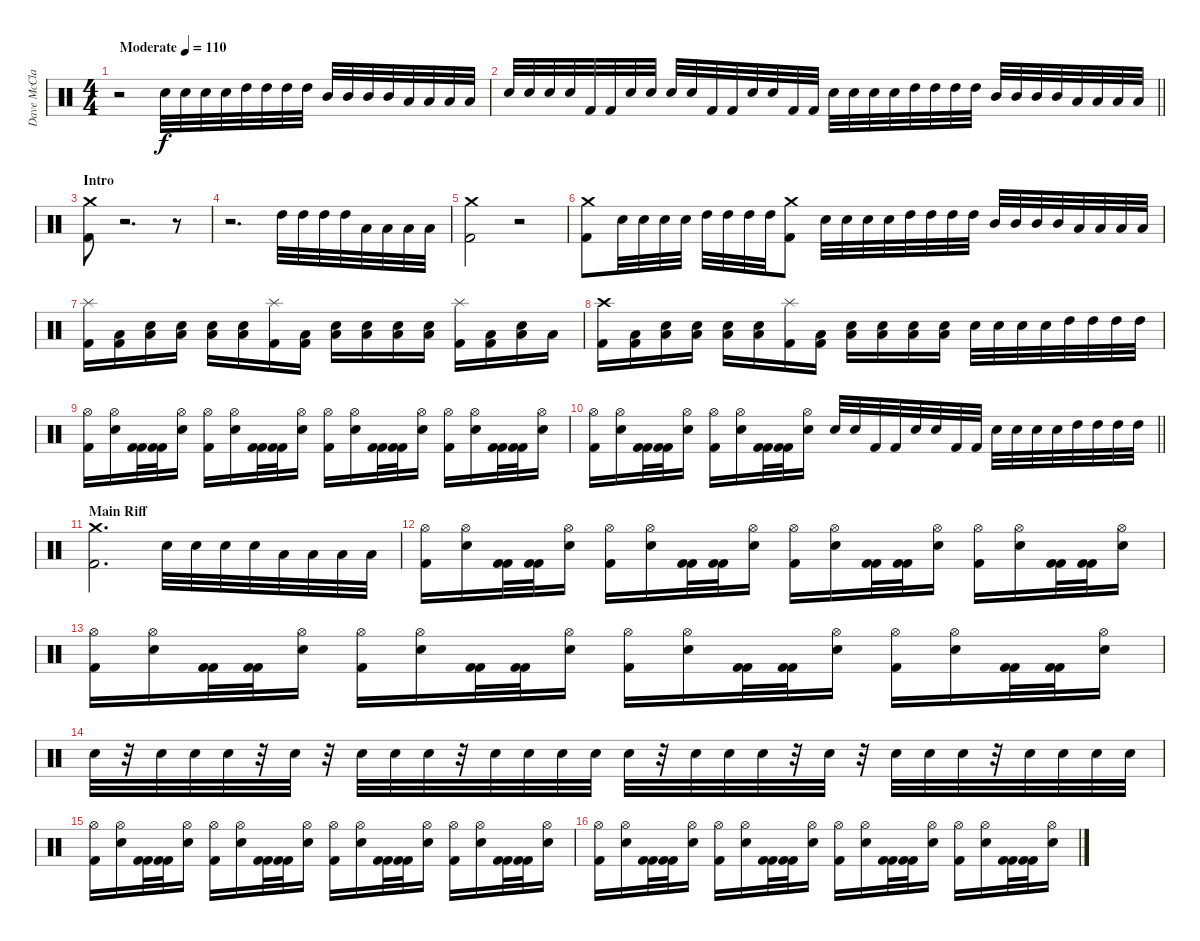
\track ("Dave McClain" "Dave McCla") {instrument percussion}
\staff {score}
\articulation defaults
\ts (4 4)
\tempo (110 "Moderate")
\clef neutral
\ks c
r.2{dy f} "Electric Snare (hit)".32 "Electric Snare (hit)".32 "Electric Snare (hit)".32 "Electric Snare (hit)".32 "High Tom (hit)".32 "High Tom (hit)".32 "High Tom (hit)".32 "High Tom (hit)".32 "Mid Tom (hit)".32 "Mid Tom (hit)".32 "Mid Tom (hit)".32 "Mid Tom (hit)".32 "Low Tom (hit)".32 "Low Tom (hit)".32 "Low Tom (hit)".32 "Low Tom (hit)".32 |
\barLineRight lightlight "Electric Snare (hit)".32 "Electric Snare (hit)".32 "Electric Snare (hit)".32 "Electric Snare (hit)".32 "Kick (hit) 2".32 "Kick (hit) 2".32 "Electric Snare (hit)".32 "Electric Snare (hit)".32 "Electric Snare (hit)".32 "Electric Snare (hit)".32 "Kick (hit) 2".32 "Kick (hit) 2".32 "Electric Snare (hit)".32 "Electric Snare (hit)".32 "Kick (hit) 2".32 "Kick (hit) 2".32 "Electric Snare (hit)".32 "Electric Snare (hit)".32 "Electric Snare (hit)".32 "Electric Snare (hit)".32 "High Tom (hit)".32 "High Tom (hit)".32 "High Tom (hit)".32 "High Tom (hit)".32 "Mid Tom (hit)".32 "Mid Tom (hit)".32 "Mid Tom (hit)".32 "Mid Tom (hit)".32 "Low Tom (hit)".32 "Low Tom (hit)".32 "Low Tom (hit)".32 "Low Tom (hit)".32
|
\section ("" "Intro")
("Crash medium (hit)" "Kick (hit) 2").8 r.2{d} r.8 |
r.2{d} "High Tom (hit)".32 "High Tom (hit)".32 "High Tom (hit)".32 "High Tom (hit)".32 "Low Tom (hit)".32 "Low Tom (hit)".32 "Low Tom (hit)".32 "Low Tom (hit)".32 |
("Kick (hit) 2" "Crash medium (hit)").2 r.2 |
("Crash medium (hit)" "Kick (hit) 2").8 "Electric Snare (hit)".32 "Electric Snare (hit)".32 "Electric Snare (hit)".32 "Electric Snare (hit)".32 "High Tom (hit)".32 "High Tom (hit)".32 "High Tom (hit)".32 "High Tom (hit)".32 ("Crash medium (hit)" "Kick (hit) 2").8 "Electric Snare (hit)".32 "Electric Snare (hit)".32 "Electric Snare (hit)".32 "Electric Snare (hit)".32 "High Tom (hit)".32 "High Tom (hit)".32 "High Tom (hit)".32 "High Tom (hit)".32 "Mid Tom (hit)".32 "Mid Tom (hit)".32 "Mid Tom (hit)".32 "Mid Tom (hit)".32 "Low Tom (hit)".32 "Low Tom (hit)".32 "Low Tom (hit)".32 "Low Tom (hit)".32 |
("Splash (hit)" "Kick (hit) 2").16 ("Kick (hit) 2" "Low Tom (hit)").16 ("Electric Snare (hit)" "Low Tom (hit)").16 ("Electric Snare (hit)" "Low Tom (hit)").16 ("Electric Snare (hit)" "Low Tom (hit)").16 ("Low Tom (hit)" "Electric Snare (hit)").16 ("Splash (hit)" "Kick (hit) 2").16 ("Kick (hit) 2" "Low Tom (hit)").16 ("Electric Snare (hit)" "Low Tom (hit)").16 ("Electric Snare (hit)" "Low Tom (hit)").16 ("Electric Snare (hit)" "Low Tom (hit)").16 ("Low Tom (hit)" "Electric Snare (hit)").16 ("Kick (hit) 2" "Splash (hit)").16 ("Low Tom (hit)" "Kick (hit) 2").16 ("Low Tom (hit)" "Electric Snare (hit)").16 "Low Tom (hit)".16 |
("Crash high (hit)" "Kick (hit) 2").16 ("Kick (hit) 2" "Low Tom (hit)").16 ("Electric Snare (hit)" "Low Tom (hit)").16 ("Electric Snare (hit)" "Low Tom (hit)").16 ("Electric Snare (hit)" "Low Tom (hit)").16 ("Low Tom (hit)" "Electric Snare (hit)").16 ("Splash (hit)" "Kick (hit) 2").16 ("Kick (hit) 2" "Low Tom (hit)").16 ("Electric Snare (hit)" "Low Tom (hit)").16 ("Electric Snare (hit)" "Low Tom (hit)").16 ("Electric Snare (hit)" "Low Tom (hit)").16 ("Low Tom (hit)" "Electric Snare (hit)").16 "Electric Snare (hit)".32 "Electric Snare (hit)".32 "Electric Snare (hit)".32 "Electric Snare (hit)".32 "High Tom (hit)".32 "High Tom (hit)".32 "High Tom (hit)".32 "High Tom (hit)".32 |
("Kick (hit) 2" "Hi-Hat (open)").16 ("Electric Snare (hit)" "Hi-Hat (open)").16 ("Kick (hit) 2" "Kick (hit) 2").32 ("Kick (hit) 2" "Kick (hit) 2").32 ("Hi-Hat (open)" "Electric Snare (hit)").16 ("Kick (hit) 2" "Hi-Hat (open)").16 ("Hi-Hat (open)" "Electric Snare (hit)").16 ("Kick (hit) 2" "Kick (hit) 2").32 ("Kick (hit) 2" "Kick (hit) 2").32 ("Electric Snare (hit)" "Hi-Hat (open)").16 ("Kick (hit) 2" "Hi-Hat (open)").16 ("Electric Snare (hit)" "Hi-Hat (open)").16 ("Kick (hit) 2" "Kick (hit) 2").32 ("Kick (hit) 2" "Kick (hit) 2").32 ("Hi-Hat (open)" "Electric Snare (hit)").16 ("Kick (hit) 2" "Hi-Hat (open)").16 ("Hi-Hat (open)" "Electric Snare (hit)").16 ("Kick (hit) 2" "Kick (hit) 2").32 ("Kick (hit) 2" "Kick (hit) 2").32 ("Electric Snare (hit)" "Hi-Hat (open)").16 |
\barLineRight lightlight
("Kick (hit) 2" "Hi-Hat (open)").16 ("Electric Snare (hit)" "Hi-Hat (open)").16 ("Kick (hit) 2" "Kick (hit) 2").32 ("Kick (hit) 2" "Kick (hit) 2").32 ("Hi-Hat (open)" "Electric Snare (hit)").16 ("Kick (hit) 2" "Hi-Hat (open)").16 ("Hi-Hat (open)" "Electric Snare (hit)").16 ("Kick (hit) 2" "Kick (hit) 2").32 ("Kick (hit) 2" "Kick (hit) 2").32 ("Electric Snare (hit)" "Hi-Hat (open)").16 "Electric Snare (hit)".32 "Electric Snare (hit)".32 "Kick (hit) 2".32 "Kick (hit) 2".32 "Electric Snare (hit)".32 "Electric Snare (hit)".32 "Kick (hit) 2".32 "Kick (hit) 2".32 "Electric Snare (hit)".32 "Electric Snare (hit)".32 "Electric Snare (hit)".32 "Electric Snare (hit)".32 "High Tom (hit)".32 "High Tom (hit)".32 "High Tom (hit)".32 "High Tom (hit)".32 |
\section ("" "Main Riff")
("Kick (hit) 2" "Crash medium (hit)").2{d} "Electric Snare (hit)".32 "Electric Snare (hit)".32 "Electric Snare (hit)".32 "Electric Snare (hit)".32 "Low Tom (hit)".32 "Low Tom (hit)".32 "Low Tom (hit)".32 "Low Tom (hit)".32 |
("Kick (hit) 2" "Hi-Hat (open)").16 ("Electric Snare (hit)" "Hi-Hat (open)").16 ("Kick (hit) 2" "Kick (hit) 2").32 ("Kick (hit) 2" "Kick (hit) 2").32 ("Hi-Hat (open)" "Electric Snare (hit)").16 ("Kick (hit) 2" "Hi-Hat (open)").16 ("Hi-Hat (open)" "Electric Snare (hit)").16 ("Kick (hit) 2" "Kick (hit) 2").32 ("Kick (hit) 2" "Kick (hit) 2").32 ("Electric Snare (hit)" "Hi-Hat (open)").16 ("Kick (hit) 2" "Hi-Hat (open)").16 ("Electric Snare (hit)" "Hi-Hat (open)").16 ("Kick (hit) 2" "Kick (hit) 2").32 ("Kick (hit) 2" "Kick (hit) 2").32 ("Hi-Hat (open)" "Electric Snare (hit)").16 ("Kick (hit) 2" "Hi-Hat (open)").16 ("Hi-Hat (open)" "Electric Snare (hit)").16 ("Kick (hit) 2" "Kick (hit) 2").32 ("Kick (hit) 2" "Kick (hit) 2").32 ("Electric Snare (hit)" "Hi-Hat (open)").16 |
("Kick (hit) 2" "Hi-Hat (open)").16 ("Electric Snare (hit)" "Hi-Hat (open)").16 ("Kick (hit) 2" "Kick (hit) 2").32 ("Kick (hit) 2" "Kick (hit) 2").32 ("Hi-Hat (open)" "Electric Snare (hit)").16 ("Kick (hit) 2" "Hi-Hat (open)").16 ("Hi-Hat (open)" "Electric Snare (hit)").16 ("Kick (hit) 2" "Kick (hit) 2").32 ("Kick (hit) 2" "Kick (hit) 2").32 ("Electric Snare (hit)" "Hi-Hat (open)").16 ("Kick (hit) 2" "Hi-Hat (open)").16 ("Electric Snare (hit)" "Hi-Hat (open)").16 ("Kick (hit) 2" "Kick (hit) 2").32 ("Kick (hit) 2" "Kick (hit) 2").32 ("Hi-Hat (open)" "Electric Snare (hit)").16 ("Kick (hit) 2" "Hi-Hat (open)").16 ("Hi-Hat (open)" "Electric Snare (hit)").16 ("Kick (hit) 2" "Kick (hit) 2").32 ("Kick (hit) 2" "Kick (hit) 2").32 ("Electric Snare (hit)" "Hi-Hat (open)").16 |
"Electric Snare (hit)".32 r.32 "Electric Snare (hit)".32 "Electric Snare (hit)".32 "Electric Snare (hit)".32 r.32 "Electric Snare (hit)".32 r.32 "Electric Snare (hit)".32 "Electric Snare (hit)".32 "Electric Snare (hit)".32 r.32 "Electric Snare (hit)".32 "Electric Snare (hit)".32 "Electric Snare (hit)".32 "Electric Snare (hit)".32 "Electric Snare (hit)".32 r.32 "Electric Snare (hit)".32 "Electric Snare (hit)".32 "Electric Snare (hit)".32 r.32 "Electric Snare (hit)".32 r.32 "Electric Snare (hit)".32 "Electric Snare (hit)".32 "Electric Snare (hit)".32 r.32 "Electric Snare (hit)".32 "Electric Snare (hit)".32 "Electric Snare (hit)".32 "Electric Snare (hit)".32 |
("Kick (hit) 2" "Hi-Hat (open)").16 ("Electric Snare (hit)" "Hi-Hat (open)").16 ("Kick (hit) 2" "Kick (hit) 2").32 ("Kick (hit) 2" "Kick (hit) 2").32 ("Hi-Hat (open)" "Electric Snare (hit)").16 ("Kick (hit) 2" "Hi-Hat (open)").16 ("Hi-Hat (open)" "Electric Snare (hit)").16 ("Kick (hit) 2" "Kick (hit) 2").32 ("Kick (hit) 2" "Kick (hit) 2").32 ("Electric Snare (hit)" "Hi-Hat (open)").16 ("Kick (hit) 2" "Hi-Hat (open)").16 ("Electric Snare (hit)" "Hi-Hat (open)").16 ("Kick (hit) 2" "Kick (hit) 2").32 ("Kick (hit) 2" "Kick (hit) 2").32 ("Hi-Hat (open)" "Electric Snare (hit)").16 ("Kick (hit) 2" "Hi-Hat (open)").16 ("Hi-Hat (open)" "Electric Snare (hit)").16 ("Kick (hit) 2" "Kick (hit) 2").32 ("Kick (hit) 2" "Kick (hit) 2").32 ("Electric Snare (hit)" "Hi-Hat (open)").16 |
("Kick (hit) 2" "Hi-Hat (open)").16 ("Electric Snare (hit)" "Hi-Hat (open)").16 ("Kick (hit) 2" "Kick (hit) 2").32 ("Kick (hit) 2" "Kick (hit) 2").32 ("Hi-Hat (open)" "Electric Snare (hit)").16 ("Kick (hit) 2" "Hi-Hat (open)").16 ("Hi-Hat (open)" "Electric Snare (hit)").16 ("Kick (hit) 2" "Kick (hit) 2").32 ("Kick (hit) 2" "Kick (hit) 2").32 ("Electric Snare (hit)" "Hi-Hat (open)").16 ("Kick (hit) 2" "Hi-Hat (open)").16 ("Electric Snare (hit)" "Hi-Hat (open)").16 ("Kick (hit) 2" "Kick (hit) 2").32 ("Kick (hit) 2" "Kick (hit) 2").32 ("Hi-Hat (open)" "Electric Snare (hit)").16 ("Kick (hit) 2" "Hi-Hat (open)").16 ("Hi-Hat (open)" "Electric Snare (hit)").16 ("Kick (hit) 2" "Kick (hit) 2").32 ("Kick (hit) 2" "Kick (hit) 2").32 ("Electric Snare (hit)" "Hi-Hat (open)").16
